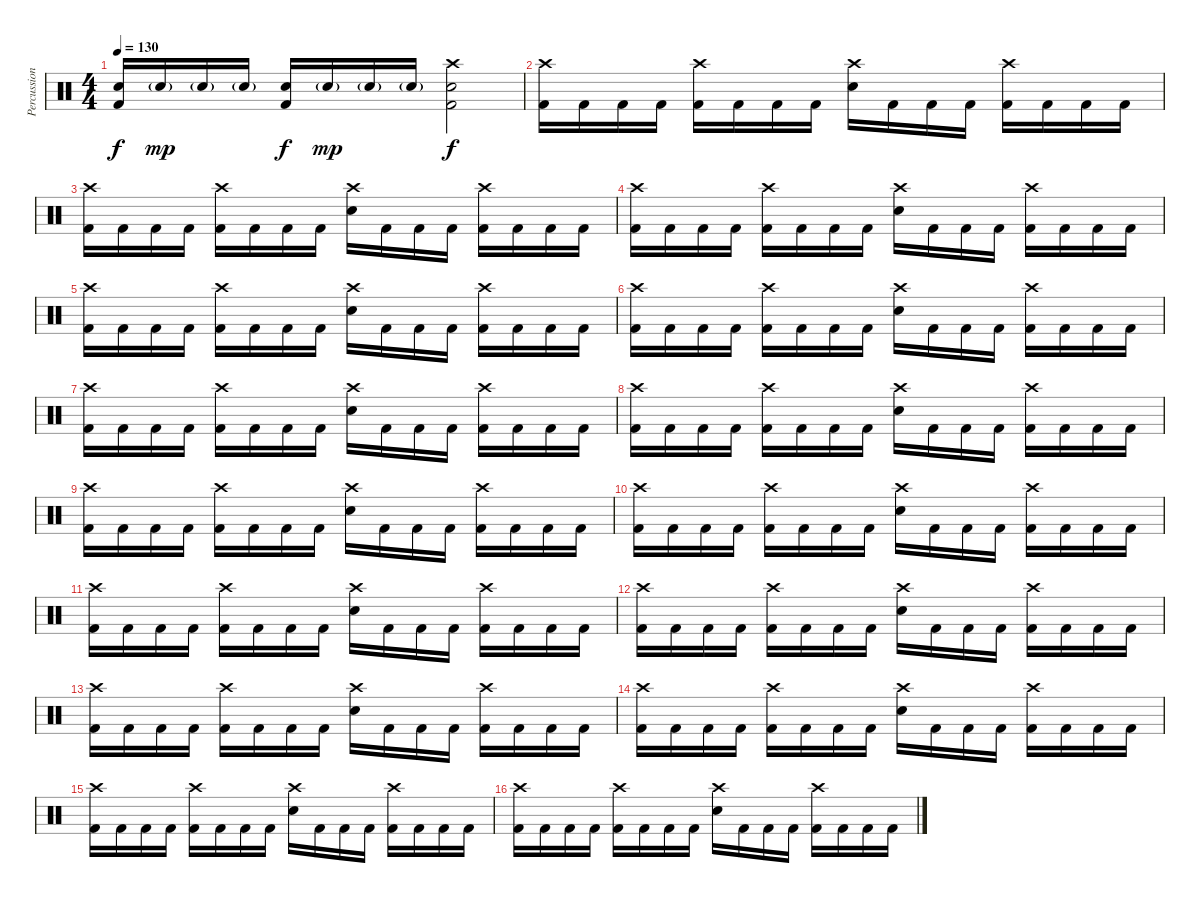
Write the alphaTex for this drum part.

\track ("Percussion" "Percussion") {instrument percussion}
\staff {score}
\articulation defaults
\ts (4 4)
\tempo 130
\clef neutral
\ks c
("Electric Snare (hit)" "Kick (hit) 2").16{dy f} "Electric Snare (hit)"{g}.16{dy mp} "Electric Snare (hit)"{g}.16 "Electric Snare (hit)"{g}.16 ("Electric Snare (hit)" "Kick (hit) 2").16{dy f} "Electric Snare (hit)"{g}.16{dy mp} "Electric Snare (hit)"{g}.16 "Electric Snare (hit)"{g}.16 ("Crash high (hit)" "Electric Snare (hit)" "Kick (hit) 2").2{dy f} |
("Crash high (hit)" "Kick (hit) 2").16 "Kick (hit) 2".16 "Kick (hit) 2".16 "Kick (hit) 2".16 ("Crash high (hit)" "Kick (hit) 2").16 "Kick (hit) 2".16 "Kick (hit) 2".16 "Kick (hit) 2".16 ("Crash high (hit)" "Electric Snare (hit)").16 "Kick (hit) 2".16 "Kick (hit) 2".16 "Kick (hit) 2".16 ("Crash high (hit)" "Kick (hit) 2").16 "Kick (hit) 2".16 "Kick (hit) 2".16 "Kick (hit) 2".16 |
("Crash high (hit)" "Kick (hit) 2").16 "Kick (hit) 2".16 "Kick (hit) 2".16 "Kick (hit) 2".16 ("Crash high (hit)" "Kick (hit) 2").16 "Kick (hit) 2".16 "Kick (hit) 2".16 "Kick (hit) 2".16 ("Crash high (hit)" "Electric Snare (hit)").16 "Kick (hit) 2".16 "Kick (hit) 2".16 "Kick (hit) 2".16 ("Crash high (hit)" "Kick (hit) 2").16 "Kick (hit) 2".16 "Kick (hit) 2".16 "Kick (hit) 2".16 |
("Crash high (hit)" "Kick (hit) 2").16 "Kick (hit) 2".16 "Kick (hit) 2".16 "Kick (hit) 2".16 ("Crash high (hit)" "Kick (hit) 2").16 "Kick (hit) 2".16 "Kick (hit) 2".16 "Kick (hit) 2".16 ("Crash high (hit)" "Electric Snare (hit)").16 "Kick (hit) 2".16 "Kick (hit) 2".16 "Kick (hit) 2".16 ("Crash high (hit)" "Kick (hit) 2").16 "Kick (hit) 2".16 "Kick (hit) 2".16 "Kick (hit) 2".16 |
("Crash high (hit)" "Kick (hit) 2").16 "Kick (hit) 2".16 "Kick (hit) 2".16 "Kick (hit) 2".16 ("Crash high (hit)" "Kick (hit) 2").16 "Kick (hit) 2".16 "Kick (hit) 2".16 "Kick (hit) 2".16 ("Crash high (hit)" "Electric Snare (hit)").16 "Kick (hit) 2".16 "Kick (hit) 2".16 "Kick (hit) 2".16 ("Crash high (hit)" "Kick (hit) 2").16 "Kick (hit) 2".16 "Kick (hit) 2".16 "Kick (hit) 2".16 |
("Crash high (hit)" "Kick (hit) 2").16 "Kick (hit) 2".16 "Kick (hit) 2".16 "Kick (hit) 2".16 ("Crash high (hit)" "Kick (hit) 2").16 "Kick (hit) 2".16 "Kick (hit) 2".16 "Kick (hit) 2".16 ("Crash high (hit)" "Electric Snare (hit)").16 "Kick (hit) 2".16 "Kick (hit) 2".16 "Kick (hit) 2".16 ("Crash high (hit)" "Kick (hit) 2").16 "Kick (hit) 2".16 "Kick (hit) 2".16 "Kick (hit) 2".16 |
("Crash high (hit)" "Kick (hit) 2").16 "Kick (hit) 2".16 "Kick (hit) 2".16 "Kick (hit) 2".16 ("Crash high (hit)" "Kick (hit) 2").16 "Kick (hit) 2".16 "Kick (hit) 2".16 "Kick (hit) 2".16 ("Crash high (hit)" "Electric Snare (hit)").16 "Kick (hit) 2".16 "Kick (hit) 2".16 "Kick (hit) 2".16 ("Crash high (hit)" "Kick (hit) 2").16 "Kick (hit) 2".16 "Kick (hit) 2".16 "Kick (hit) 2".16 |
("Crash high (hit)" "Kick (hit) 2").16 "Kick (hit) 2".16 "Kick (hit) 2".16 "Kick (hit) 2".16 ("Crash high (hit)" "Kick (hit) 2").16 "Kick (hit) 2".16 "Kick (hit) 2".16 "Kick (hit) 2".16 ("Crash high (hit)" "Electric Snare (hit)").16 "Kick (hit) 2".16 "Kick (hit) 2".16 "Kick (hit) 2".16 ("Crash high (hit)" "Kick (hit) 2").16 "Kick (hit) 2".16 "Kick (hit) 2".16 "Kick (hit) 2".16 |
("Crash high (hit)" "Kick (hit) 2").16 "Kick (hit) 2".16 "Kick (hit) 2".16 "Kick (hit) 2".16 ("Crash high (hit)" "Kick (hit) 2").16 "Kick (hit) 2".16 "Kick (hit) 2".16 "Kick (hit) 2".16 ("Crash high (hit)" "Electric Snare (hit)").16 "Kick (hit) 2".16 "Kick (hit) 2".16 "Kick (hit) 2".16 ("Crash high (hit)" "Kick (hit) 2").16 "Kick (hit) 2".16 "Kick (hit) 2".16 "Kick (hit) 2".16 |
("Crash high (hit)" "Kick (hit) 2").16 "Kick (hit) 2".16 "Kick (hit) 2".16 "Kick (hit) 2".16 ("Crash high (hit)" "Kick (hit) 2").16 "Kick (hit) 2".16 "Kick (hit) 2".16 "Kick (hit) 2".16 ("Crash high (hit)" "Electric Snare (hit)").16 "Kick (hit) 2".16 "Kick (hit) 2".16 "Kick (hit) 2".16 ("Crash high (hit)" "Kick (hit) 2").16 "Kick (hit) 2".16 "Kick (hit) 2".16 "Kick (hit) 2".16 |
("Crash high (hit)" "Kick (hit) 2").16 "Kick (hit) 2".16 "Kick (hit) 2".16 "Kick (hit) 2".16 ("Crash high (hit)" "Kick (hit) 2").16 "Kick (hit) 2".16 "Kick (hit) 2".16 "Kick (hit) 2".16 ("Crash high (hit)" "Electric Snare (hit)").16 "Kick (hit) 2".16 "Kick (hit) 2".16 "Kick (hit) 2".16 ("Crash high (hit)" "Kick (hit) 2").16 "Kick (hit) 2".16 "Kick (hit) 2".16 "Kick (hit) 2".16 |
("Crash high (hit)" "Kick (hit) 2").16 "Kick (hit) 2".16 "Kick (hit) 2".16 "Kick (hit) 2".16 ("Crash high (hit)" "Kick (hit) 2").16 "Kick (hit) 2".16 "Kick (hit) 2".16 "Kick (hit) 2".16 ("Crash high (hit)" "Electric Snare (hit)").16 "Kick (hit) 2".16 "Kick (hit) 2".16 "Kick (hit) 2".16 ("Crash high (hit)" "Kick (hit) 2").16 "Kick (hit) 2".16 "Kick (hit) 2".16 "Kick (hit) 2".16 |
("Crash high (hit)" "Kick (hit) 2").16 "Kick (hit) 2".16 "Kick (hit) 2".16 "Kick (hit) 2".16 ("Crash high (hit)" "Kick (hit) 2").16 "Kick (hit) 2".16 "Kick (hit) 2".16 "Kick (hit) 2".16 ("Crash high (hit)" "Electric Snare (hit)").16 "Kick (hit) 2".16 "Kick (hit) 2".16 "Kick (hit) 2".16 ("Crash high (hit)" "Kick (hit) 2").16 "Kick (hit) 2".16 "Kick (hit) 2".16 "Kick (hit) 2".16 |
("Crash high (hit)" "Kick (hit) 2").16 "Kick (hit) 2".16 "Kick (hit) 2".16 "Kick (hit) 2".16 ("Crash high (hit)" "Kick (hit) 2").16 "Kick (hit) 2".16 "Kick (hit) 2".16 "Kick (hit) 2".16 ("Crash high (hit)" "Electric Snare (hit)").16 "Kick (hit) 2".16 "Kick (hit) 2".16 "Kick (hit) 2".16 ("Crash high (hit)" "Kick (hit) 2").16 "Kick (hit) 2".16 "Kick (hit) 2".16 "Kick (hit) 2".16 |
("Crash high (hit)" "Kick (hit) 2").16 "Kick (hit) 2".16 "Kick (hit) 2".16 "Kick (hit) 2".16 ("Crash high (hit)" "Kick (hit) 2").16 "Kick (hit) 2".16 "Kick (hit) 2".16 "Kick (hit) 2".16 ("Crash high (hit)" "Electric Snare (hit)").16 "Kick (hit) 2".16 "Kick (hit) 2".16 "Kick (hit) 2".16 ("Crash high (hit)" "Kick (hit) 2").16 "Kick (hit) 2".16 "Kick (hit) 2".16 "Kick (hit) 2".16 |
("Crash high (hit)" "Kick (hit) 2").16 "Kick (hit) 2".16 "Kick (hit) 2".16 "Kick (hit) 2".16 ("Crash high (hit)" "Kick (hit) 2").16 "Kick (hit) 2".16 "Kick (hit) 2".16 "Kick (hit) 2".16 ("Crash high (hit)" "Electric Snare (hit)").16 "Kick (hit) 2".16 "Kick (hit) 2".16 "Kick (hit) 2".16 ("Crash high (hit)" "Kick (hit) 2").16 "Kick (hit) 2".16 "Kick (hit) 2".16 "Kick (hit) 2".16
